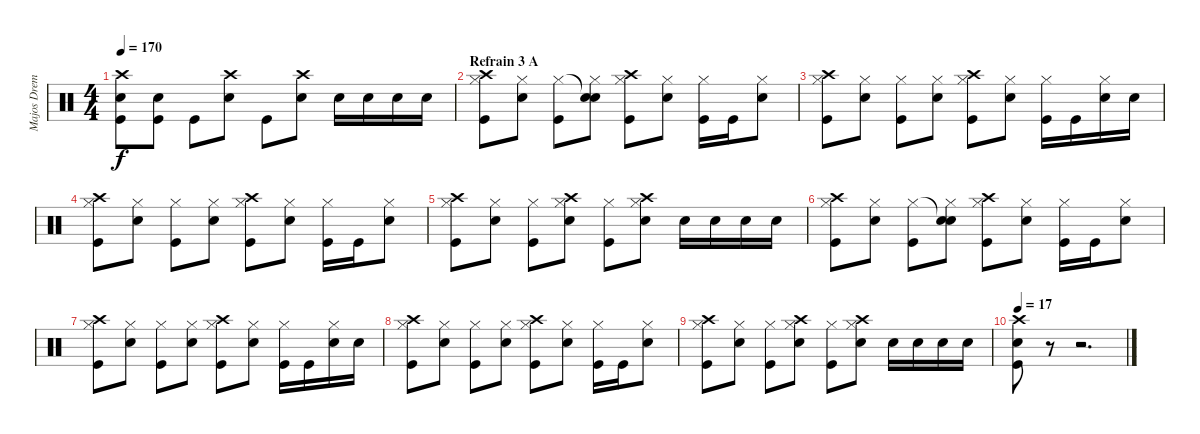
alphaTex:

\track ("Majos Dremmelei" "Majos Drem") {instrument percussion}
\staff {score}
\articulation defaults
\ts (4 4)
\tempo 170
\clef neutral
\ks c
("Crash high (hit)" "Electric Snare (hit)" "Kick (hit)").8{dy f} ("Electric Snare (hit)" "Kick (hit)").8 "Kick (hit)".8 ("Crash high (hit)" "Electric Snare (hit)").8 "Kick (hit)".8 ("Crash high (hit)" "Electric Snare (hit)").8 "Electric Snare (hit)".16 "Electric Snare (hit)".16 "Electric Snare (hit)".16 "Electric Snare (hit)".16 |
\section ("" "Refrain 3 A")
("Crash high (hit)" "Hi-Hat (closed)" "Kick (hit)").8 ("Hi-Hat (closed)" "Electric Snare (hit)").8 ("Hi-Hat (closed)" "Kick (hit)").8 ("Snare (hit)"{t} "Hi-Hat (closed)" "Electric Snare (hit)").8 ("Crash high (hit)" "Hi-Hat (closed)" "Kick (hit)").8 ("Hi-Hat (closed)" "Electric Snare (hit)").8 ("Hi-Hat (closed)" "Kick (hit)").16 "Kick (hit)".16 ("Hi-Hat (closed)" "Electric Snare (hit)").8 |
("Crash high (hit)" "Hi-Hat (closed)" "Kick (hit)").8 ("Hi-Hat (closed)" "Electric Snare (hit)").8 ("Hi-Hat (closed)" "Kick (hit)").8 ("Hi-Hat (closed)" "Electric Snare (hit)").8 ("Crash high (hit)" "Hi-Hat (closed)" "Kick (hit)").8 ("Hi-Hat (closed)" "Electric Snare (hit)").8 ("Hi-Hat (closed)" "Kick (hit)").16 "Kick (hit)".16 ("Hi-Hat (closed)" "Electric Snare (hit)").16 "Electric Snare (hit)".16 |
("Crash high (hit)" "Hi-Hat (closed)" "Kick (hit)").8 ("Hi-Hat (closed)" "Electric Snare (hit)").8 ("Hi-Hat (closed)" "Kick (hit)").8 ("Hi-Hat (closed)" "Electric Snare (hit)").8 ("Crash high (hit)" "Hi-Hat (closed)" "Kick (hit)").8 ("Hi-Hat (closed)" "Electric Snare (hit)").8 ("Hi-Hat (closed)" "Kick (hit)").16 "Kick (hit)".16 ("Hi-Hat (closed)" "Electric Snare (hit)").8 |
("Crash high (hit)" "Hi-Hat (closed)" "Kick (hit)").8 ("Hi-Hat (closed)" "Electric Snare (hit)").8 ("Hi-Hat (closed)" "Kick (hit)").8 ("Crash high (hit)" "Hi-Hat (closed)" "Electric Snare (hit)").8 ("Hi-Hat (closed)" "Kick (hit)").8 ("Crash high (hit)" "Hi-Hat (closed)" "Electric Snare (hit)").8 "Electric Snare (hit)".16 "Electric Snare (hit)".16 "Electric Snare (hit)".16 "Electric Snare (hit)".16 |
("Crash high (hit)" "Hi-Hat (closed)" "Kick (hit)").8 ("Hi-Hat (closed)" "Electric Snare (hit)").8 ("Hi-Hat (closed)" "Kick (hit)").8 ("Snare (hit)"{t} "Hi-Hat (closed)" "Electric Snare (hit)").8 ("Crash high (hit)" "Hi-Hat (closed)" "Kick (hit)").8 ("Hi-Hat (closed)" "Electric Snare (hit)").8 ("Hi-Hat (closed)" "Kick (hit)").16 "Kick (hit)".16 ("Hi-Hat (closed)" "Electric Snare (hit)").8 |
("Crash high (hit)" "Hi-Hat (closed)" "Kick (hit)").8 ("Hi-Hat (closed)" "Electric Snare (hit)").8 ("Hi-Hat (closed)" "Kick (hit)").8 ("Hi-Hat (closed)" "Electric Snare (hit)").8 ("Crash high (hit)" "Hi-Hat (closed)" "Kick (hit)").8 ("Hi-Hat (closed)" "Electric Snare (hit)").8 ("Hi-Hat (closed)" "Kick (hit)").16 "Kick (hit)".16 ("Hi-Hat (closed)" "Electric Snare (hit)").16 "Electric Snare (hit)".16 |
("Crash high (hit)" "Hi-Hat (closed)" "Kick (hit)").8 ("Hi-Hat (closed)" "Electric Snare (hit)").8 ("Hi-Hat (closed)" "Kick (hit)").8 ("Hi-Hat (closed)" "Electric Snare (hit)").8 ("Crash high (hit)" "Hi-Hat (closed)" "Kick (hit)").8 ("Hi-Hat (closed)" "Electric Snare (hit)").8 ("Hi-Hat (closed)" "Kick (hit)").16 "Kick (hit)".16 ("Hi-Hat (closed)" "Electric Snare (hit)").8 |
("Crash high (hit)" "Hi-Hat (closed)" "Kick (hit)").8 ("Hi-Hat (closed)" "Electric Snare (hit)").8 ("Hi-Hat (closed)" "Kick (hit)").8 ("Crash high (hit)" "Hi-Hat (closed)" "Electric Snare (hit)").8 ("Hi-Hat (closed)" "Kick (hit)").8 ("Crash high (hit)" "Hi-Hat (closed)" "Electric Snare (hit)").8 "Electric Snare (hit)".16 "Electric Snare (hit)".16 "Electric Snare (hit)".16 "Electric Snare (hit)".16 |
\tempo 17
("Crash high (hit)" "Electric Snare (hit)" "Kick (hit)").8 r.8 r.2{d}
